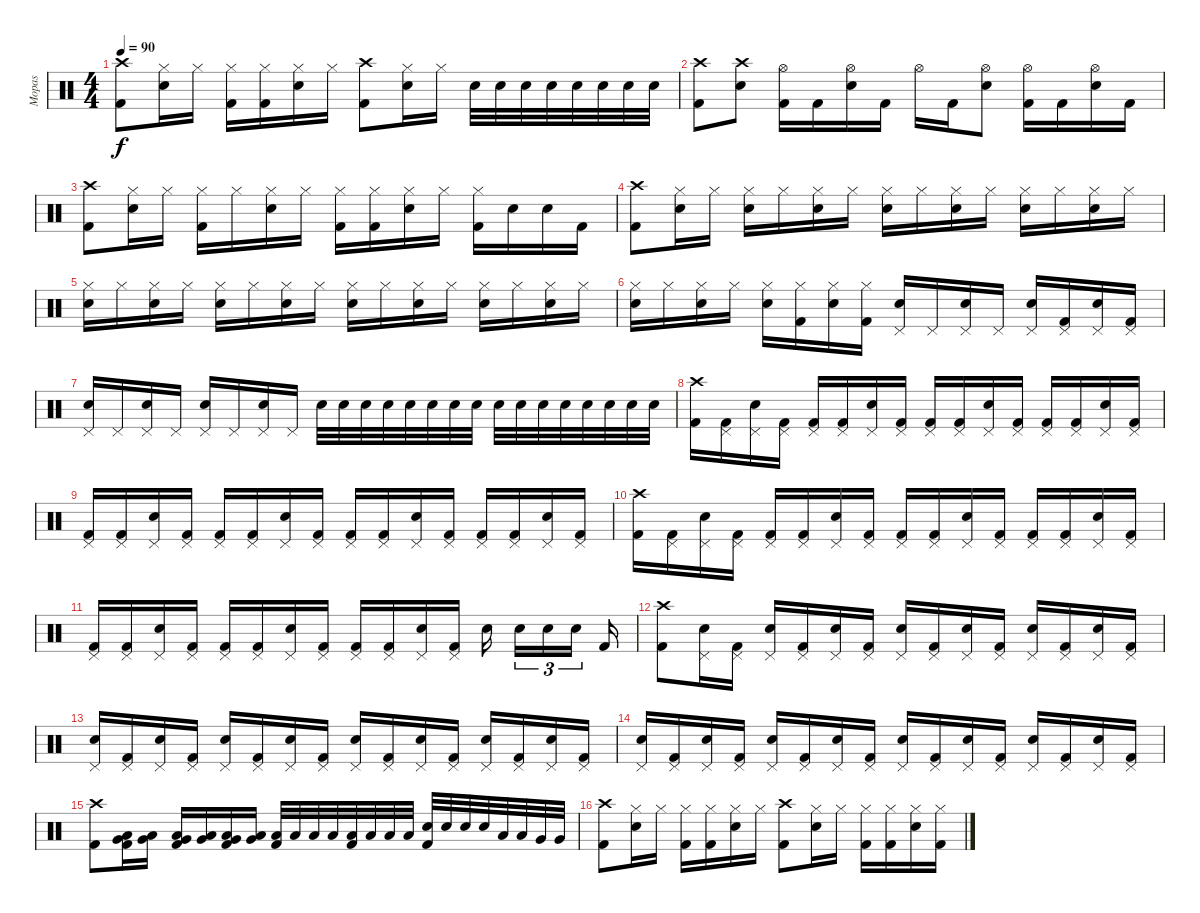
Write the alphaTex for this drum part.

\track ("Mopas" "Mopas") {instrument percussion}
\staff {score}
\articulation defaults
\ts (4 4)
\tempo 90
\clef neutral
\ks c
("Crash high (hit)" "Kick (hit) 2").8{dy f} ("Hi-Hat (closed)" "Snare (hit) 2").16 "Hi-Hat (closed)".16 ("Hi-Hat (closed)" "Kick (hit) 2").16 ("Hi-Hat (closed)" "Kick (hit) 2").16 ("Hi-Hat (closed)" "Snare (hit) 2").16 "Hi-Hat (closed)".16 ("Crash high (hit)" "Kick (hit) 2").8 ("Hi-Hat (closed)" "Snare (hit) 2").16 "Hi-Hat (closed)".16 "Snare (hit) 2".32 "Snare (hit) 2".32 "Snare (hit) 2".32 "Snare (hit) 2".32 "Snare (hit) 2".32 "Snare (hit) 2".32 "Snare (hit) 2".32 "Snare (hit) 2".32 |
("Crash high (hit)" "Kick (hit) 2").8 ("Crash high (hit)" "Snare (hit) 2").8 ("Hi-Hat (open)" "Kick (hit) 2").16 "Kick (hit) 2".16 ("Hi-Hat (open)" "Snare (hit) 2").16 "Kick (hit) 2".16 "Hi-Hat (open)".16 "Kick (hit) 2".16 ("Hi-Hat (open)" "Snare (hit) 2").8 ("Hi-Hat (open)" "Kick (hit) 2").16 "Kick (hit) 2".16 ("Hi-Hat (open)" "Snare (hit) 2").16 "Kick (hit) 2".16 |
("Crash high (hit)" "Kick (hit) 2").8 ("Hi-Hat (closed)" "Snare (hit) 2").16 "Hi-Hat (closed)".16 ("Hi-Hat (closed)" "Kick (hit) 2").16 "Hi-Hat (closed)".16 ("Hi-Hat (closed)" "Snare (hit) 2").16 "Hi-Hat (closed)".16 ("Hi-Hat (closed)" "Kick (hit) 2").16 ("Hi-Hat (closed)" "Kick (hit) 2").16 ("Hi-Hat (closed)" "Snare (hit) 2").16 "Hi-Hat (closed)".16 ("Hi-Hat (closed)" "Kick (hit) 2").16 "Snare (hit) 2".16 "Snare (hit) 2".16 "Kick (hit) 2".16 |
("Crash high (hit)" "Kick (hit) 2").8 ("Hi-Hat (closed)" "Snare (hit) 2").16 "Hi-Hat (closed)".16 ("Hi-Hat (closed)" "Snare (hit) 2").16 "Hi-Hat (closed)".16 ("Hi-Hat (closed)" "Snare (hit) 2").16 "Hi-Hat (closed)".16 ("Hi-Hat (closed)" "Snare (hit) 2").16 "Hi-Hat (closed)".16 ("Hi-Hat (closed)" "Snare (hit) 2").16 "Hi-Hat (closed)".16 ("Hi-Hat (closed)" "Snare (hit) 2").16 "Hi-Hat (closed)".16 ("Hi-Hat (closed)" "Snare (hit) 2").16 "Hi-Hat (closed)".16 |
("Hi-Hat (closed)" "Snare (hit) 2").16 "Hi-Hat (closed)".16 ("Hi-Hat (closed)" "Snare (hit) 2").16 "Hi-Hat (closed)".16 ("Hi-Hat (closed)" "Snare (hit) 2").16 "Hi-Hat (closed)".16 ("Hi-Hat (closed)" "Snare (hit) 2").16 "Hi-Hat (closed)".16 ("Hi-Hat (closed)" "Snare (hit) 2").16 "Hi-Hat (closed)".16 ("Hi-Hat (closed)" "Snare (hit) 2").16 "Hi-Hat (closed)".16 ("Hi-Hat (closed)" "Snare (hit) 2").16 "Hi-Hat (closed)".16 ("Hi-Hat (closed)" "Snare (hit) 2").16 "Hi-Hat (closed)".16 |
("Hi-Hat (closed)" "Snare (hit) 2").16 "Hi-Hat (closed)".16 ("Hi-Hat (closed)" "Snare (hit) 2").16 "Hi-Hat (closed)".16 ("Hi-Hat (closed)" "Snare (hit) 2").16 ("Hi-Hat (closed)" "Kick (hit) 2").16 ("Hi-Hat (closed)" "Snare (hit) 2").16 ("Hi-Hat (closed)" "Kick (hit) 2").16 ("Pedal Hi-Hat (hit)" "Snare (hit) 2").16 "Pedal Hi-Hat (hit)".16 ("Pedal Hi-Hat (hit)" "Snare (hit) 2").16 "Pedal Hi-Hat (hit)".16 ("Pedal Hi-Hat (hit)" "Snare (hit) 2").16 ("Pedal Hi-Hat (hit)" "Kick (hit) 2").16 ("Pedal Hi-Hat (hit)" "Snare (hit) 2").16 ("Pedal Hi-Hat (hit)" "Kick (hit) 2").16 |
("Pedal Hi-Hat (hit)" "Snare (hit) 2").16 "Pedal Hi-Hat (hit)".16 ("Pedal Hi-Hat (hit)" "Snare (hit) 2").16 "Pedal Hi-Hat (hit)".16 ("Pedal Hi-Hat (hit)" "Snare (hit) 2").16 "Pedal Hi-Hat (hit)".16 ("Pedal Hi-Hat (hit)" "Snare (hit) 2").16 "Pedal Hi-Hat (hit)".16 "Electric Snare (hit)".32 "Snare (hit) 2".32 "Snare (hit) 2".32 "Snare (hit) 2".32 "Electric Snare (hit)".32 "Snare (hit) 2".32 "Snare (hit) 2".32 "Snare (hit) 2".32 "Electric Snare (hit)".32 "Snare (hit) 2".32 "Snare (hit) 2".32 "Snare (hit) 2".32 "Electric Snare (hit)".32 "Snare (hit) 2".32 "Snare (hit) 2".32 "Snare (hit) 2".32 |
("Crash high (hit)" "Kick (hit) 2").16 ("Pedal Hi-Hat (hit)" "Kick (hit) 2").16 ("Pedal Hi-Hat (hit)" "Snare (hit) 2").16 ("Pedal Hi-Hat (hit)" "Kick (hit) 2").16 ("Pedal Hi-Hat (hit)" "Kick (hit) 2").16 ("Pedal Hi-Hat (hit)" "Kick (hit) 2").16 ("Pedal Hi-Hat (hit)" "Snare (hit) 2").16 ("Pedal Hi-Hat (hit)" "Kick (hit) 2").16 ("Pedal Hi-Hat (hit)" "Kick (hit) 2").16 ("Pedal Hi-Hat (hit)" "Kick (hit) 2").16 ("Pedal Hi-Hat (hit)" "Snare (hit) 2").16 ("Pedal Hi-Hat (hit)" "Kick (hit) 2").16 ("Pedal Hi-Hat (hit)" "Kick (hit) 2").16 ("Pedal Hi-Hat (hit)" "Kick (hit) 2").16 ("Pedal Hi-Hat (hit)" "Snare (hit) 2").16 ("Pedal Hi-Hat (hit)" "Kick (hit) 2").16 |
("Pedal Hi-Hat (hit)" "Kick (hit) 2").16 ("Pedal Hi-Hat (hit)" "Kick (hit) 2").16 ("Pedal Hi-Hat (hit)" "Snare (hit) 2").16 ("Pedal Hi-Hat (hit)" "Kick (hit) 2").16 ("Pedal Hi-Hat (hit)" "Kick (hit) 2").16 ("Pedal Hi-Hat (hit)" "Kick (hit) 2").16 ("Pedal Hi-Hat (hit)" "Snare (hit) 2").16 ("Pedal Hi-Hat (hit)" "Kick (hit) 2").16 ("Pedal Hi-Hat (hit)" "Kick (hit) 2").16 ("Pedal Hi-Hat (hit)" "Kick (hit) 2").16 ("Pedal Hi-Hat (hit)" "Snare (hit) 2").16 ("Pedal Hi-Hat (hit)" "Kick (hit) 2").16 ("Pedal Hi-Hat (hit)" "Kick (hit) 2").16 ("Pedal Hi-Hat (hit)" "Kick (hit) 2").16 ("Pedal Hi-Hat (hit)" "Snare (hit) 2").16 ("Pedal Hi-Hat (hit)" "Kick (hit) 2").16 |
("Crash high (hit)" "Kick (hit) 2").16 ("Pedal Hi-Hat (hit)" "Kick (hit) 2").16 ("Pedal Hi-Hat (hit)" "Snare (hit) 2").16 ("Pedal Hi-Hat (hit)" "Kick (hit) 2").16 ("Pedal Hi-Hat (hit)" "Kick (hit) 2").16 ("Pedal Hi-Hat (hit)" "Kick (hit) 2").16 ("Pedal Hi-Hat (hit)" "Snare (hit) 2").16 ("Pedal Hi-Hat (hit)" "Kick (hit) 2").16 ("Pedal Hi-Hat (hit)" "Kick (hit) 2").16 ("Pedal Hi-Hat (hit)" "Kick (hit) 2").16 ("Pedal Hi-Hat (hit)" "Snare (hit) 2").16 ("Pedal Hi-Hat (hit)" "Kick (hit) 2").16 ("Pedal Hi-Hat (hit)" "Kick (hit) 2").16 ("Pedal Hi-Hat (hit)" "Kick (hit) 2").16 ("Pedal Hi-Hat (hit)" "Snare (hit) 2").16 ("Pedal Hi-Hat (hit)" "Kick (hit) 2").16 |
("Pedal Hi-Hat (hit)" "Kick (hit) 2").16 ("Pedal Hi-Hat (hit)" "Kick (hit) 2").16 ("Pedal Hi-Hat (hit)" "Snare (hit) 2").16 ("Pedal Hi-Hat (hit)" "Kick (hit) 2").16 ("Pedal Hi-Hat (hit)" "Kick (hit) 2").16 ("Pedal Hi-Hat (hit)" "Kick (hit) 2").16 ("Pedal Hi-Hat (hit)" "Snare (hit) 2").16 ("Pedal Hi-Hat (hit)" "Kick (hit) 2").16 ("Pedal Hi-Hat (hit)" "Kick (hit) 2").16 ("Pedal Hi-Hat (hit)" "Kick (hit) 2").16 ("Pedal Hi-Hat (hit)" "Snare (hit) 2").16 ("Pedal Hi-Hat (hit)" "Kick (hit) 2").16 "Snare (hit) 2".16 "Snare (hit) 2".16{tu (3 2)} "Snare (hit) 2".16{tu (3 2)} "Snare (hit) 2".16{tu (3 2)} "Kick (hit) 2".16 |
("Crash high (hit)" "Kick (hit) 2").8 ("Pedal Hi-Hat (hit)" "Snare (hit) 2").16 ("Pedal Hi-Hat (hit)" "Kick (hit) 2").16 ("Pedal Hi-Hat (hit)" "Snare (hit) 2").16 ("Pedal Hi-Hat (hit)" "Kick (hit) 2").16 ("Pedal Hi-Hat (hit)" "Snare (hit) 2").16 ("Pedal Hi-Hat (hit)" "Kick (hit) 2").16 ("Pedal Hi-Hat (hit)" "Snare (hit) 2").16 ("Pedal Hi-Hat (hit)" "Kick (hit) 2").16 ("Pedal Hi-Hat (hit)" "Snare (hit) 2").16 ("Pedal Hi-Hat (hit)" "Kick (hit) 2").16 ("Pedal Hi-Hat (hit)" "Snare (hit) 2").16 ("Pedal Hi-Hat (hit)" "Kick (hit) 2").16 ("Pedal Hi-Hat (hit)" "Snare (hit) 2").16 ("Pedal Hi-Hat (hit)" "Kick (hit) 2").16 |
("Pedal Hi-Hat (hit)" "Snare (hit) 2").16 ("Pedal Hi-Hat (hit)" "Kick (hit) 2").16 ("Pedal Hi-Hat (hit)" "Snare (hit) 2").16 ("Pedal Hi-Hat (hit)" "Kick (hit) 2").16 ("Pedal Hi-Hat (hit)" "Snare (hit) 2").16 ("Pedal Hi-Hat (hit)" "Kick (hit) 2").16 ("Pedal Hi-Hat (hit)" "Snare (hit) 2").16 ("Pedal Hi-Hat (hit)" "Kick (hit) 2").16 ("Pedal Hi-Hat (hit)" "Snare (hit) 2").16 ("Pedal Hi-Hat (hit)" "Kick (hit) 2").16 ("Pedal Hi-Hat (hit)" "Snare (hit) 2").16 ("Pedal Hi-Hat (hit)" "Kick (hit) 2").16 ("Pedal Hi-Hat (hit)" "Snare (hit) 2").16 ("Pedal Hi-Hat (hit)" "Kick (hit) 2").16 ("Pedal Hi-Hat (hit)" "Snare (hit) 2").16 ("Pedal Hi-Hat (hit)" "Kick (hit) 2").16 |
("Pedal Hi-Hat (hit)" "Snare (hit) 2").16 ("Pedal Hi-Hat (hit)" "Kick (hit) 2").16 ("Pedal Hi-Hat (hit)" "Snare (hit) 2").16 ("Pedal Hi-Hat (hit)" "Kick (hit) 2").16 ("Pedal Hi-Hat (hit)" "Snare (hit) 2").16 ("Pedal Hi-Hat (hit)" "Kick (hit) 2").16 ("Pedal Hi-Hat (hit)" "Snare (hit) 2").16 ("Pedal Hi-Hat (hit)" "Kick (hit) 2").16 ("Pedal Hi-Hat (hit)" "Snare (hit) 2").16 ("Pedal Hi-Hat (hit)" "Kick (hit) 2").16 ("Pedal Hi-Hat (hit)" "Snare (hit) 2").16 ("Pedal Hi-Hat (hit)" "Kick (hit) 2").16 ("Pedal Hi-Hat (hit)" "Snare (hit) 2").16 ("Pedal Hi-Hat (hit)" "Kick (hit) 2").16 ("Pedal Hi-Hat (hit)" "Snare (hit) 2").16 ("Pedal Hi-Hat (hit)" "Kick (hit) 2").16 |
("Crash high (hit)" "Kick (hit) 2").8 ("Low Tom (hit)" "Very Low Tom (hit)" "Kick (hit) 2").16 ("Low Tom (hit)" "Very Low Tom (hit)").16 ("Low Tom (hit)" "Very Low Tom (hit)" "Kick (hit) 2").16 ("Low Tom (hit)" "Very Low Tom (hit)").16 ("Low Tom (hit)" "Very Low Tom (hit)" "Kick (hit) 2").16 ("Low Tom (hit)" "Very Low Tom (hit)").16 ("Low Tom (hit)" "Kick (hit) 2").32 "Low Tom (hit)".32 "Low Tom (hit)".32 "Low Tom (hit)".32 ("Low Tom (hit)" "Kick (hit) 2").32 "Low Tom (hit)".32 "Low Tom (hit)".32 "Low Tom (hit)".32 ("Snare (hit) 2" "Kick (hit) 2").32 "Snare (hit) 2".32 "Snare (hit) 2".32 "Snare (hit) 2".32 "Low Tom (hit)".32 "Low Tom (hit)".32 "Very Low Tom (hit)".32 "Very Low Tom (hit)".32 |
("Crash high (hit)" "Kick (hit) 2").8 ("Hi-Hat (closed)" "Snare (hit) 2").16 "Hi-Hat (closed)".16 ("Hi-Hat (closed)" "Kick (hit) 2").16 ("Hi-Hat (closed)" "Kick (hit) 2").16 ("Hi-Hat (closed)" "Snare (hit) 2").16 "Hi-Hat (closed)".16 ("Crash high (hit)" "Kick (hit) 2").8 ("Hi-Hat (closed)" "Snare (hit) 2").16 "Hi-Hat (closed)".16 ("Hi-Hat (closed)" "Kick (hit) 2").16 ("Hi-Hat (closed)" "Kick (hit) 2").16 ("Hi-Hat (closed)" "Snare (hit) 2").16 ("Hi-Hat (closed)" "Kick (hit) 2").16
